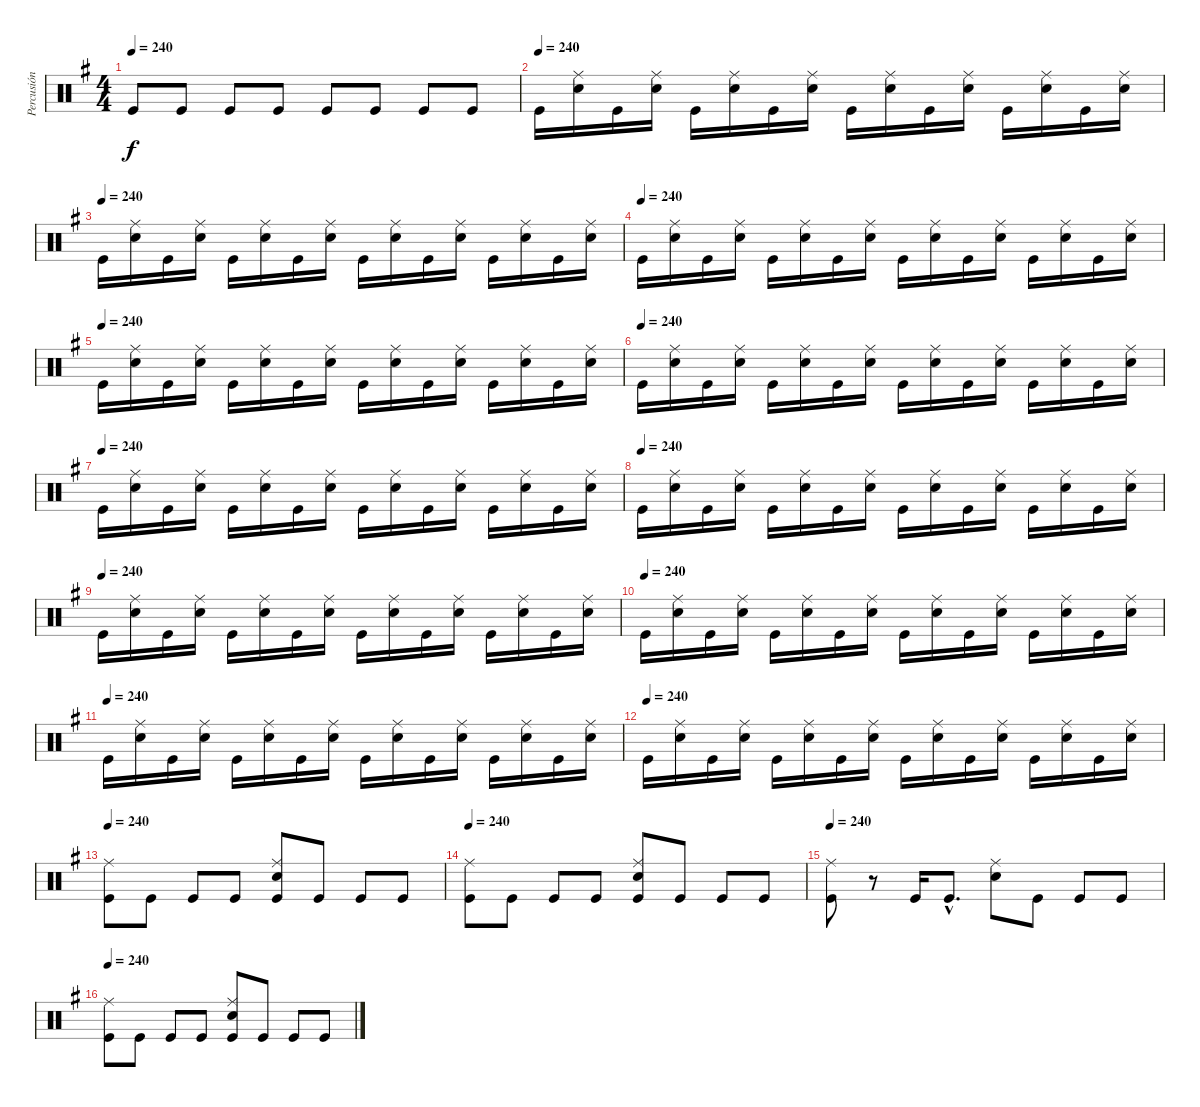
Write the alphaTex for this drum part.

\track ("Percusión" "Percusión") {instrument percussion}
\staff {score}
\articulation defaults
\ts (4 4)
\tempo 240
\clef neutral
\ks g "Kick (hit)".8{dy f} "Kick (hit)".8 "Kick (hit)".8 "Kick (hit)".8 "Kick (hit)".8 "Kick (hit)".8 "Kick (hit)".8 "Kick (hit)".8
|
\tempo (240)
"Kick (hit)".16 ("Ride (middle)" "Snare (hit) 2").16 "Kick (hit)".16 ("Ride (middle)" "Snare (hit) 2").16 "Kick (hit)".16 ("Ride (middle)" "Snare (hit) 2").16 "Kick (hit)".16 ("Ride (middle)" "Snare (hit) 2").16 "Kick (hit)".16 ("Ride (middle)" "Snare (hit) 2").16 "Kick (hit)".16 ("Ride (middle)" "Snare (hit) 2").16 "Kick (hit)".16 ("Ride (middle)" "Snare (hit) 2").16 "Kick (hit)".16 ("Ride (middle)" "Snare (hit) 2").16 |
\tempo (240)
"Kick (hit)".16 ("Ride (middle)" "Snare (hit) 2").16 "Kick (hit)".16 ("Ride (middle)" "Snare (hit) 2").16 "Kick (hit)".16 ("Ride (middle)" "Snare (hit) 2").16 "Kick (hit)".16 ("Ride (middle)" "Snare (hit) 2").16 "Kick (hit)".16 ("Ride (middle)" "Snare (hit) 2").16 "Kick (hit)".16 ("Ride (middle)" "Snare (hit) 2").16 "Kick (hit)".16 ("Ride (middle)" "Snare (hit) 2").16 "Kick (hit)".16 ("Ride (middle)" "Snare (hit) 2").16 |
\tempo (240)
"Kick (hit)".16 ("Ride (middle)" "Snare (hit) 2").16 "Kick (hit)".16 ("Ride (middle)" "Snare (hit) 2").16 "Kick (hit)".16 ("Ride (middle)" "Snare (hit) 2").16 "Kick (hit)".16 ("Ride (middle)" "Snare (hit) 2").16 "Kick (hit)".16 ("Ride (middle)" "Snare (hit) 2").16 "Kick (hit)".16 ("Ride (middle)" "Snare (hit) 2").16 "Kick (hit)".16 ("Ride (middle)" "Snare (hit) 2").16 "Kick (hit)".16 ("Ride (middle)" "Snare (hit) 2").16 |
\tempo (240)
"Kick (hit)".16 ("Ride (middle)" "Snare (hit) 2").16 "Kick (hit)".16 ("Ride (middle)" "Snare (hit) 2").16 "Kick (hit)".16 ("Ride (middle)" "Snare (hit) 2").16 "Kick (hit)".16 ("Ride (middle)" "Snare (hit) 2").16 "Kick (hit)".16 ("Ride (middle)" "Snare (hit) 2").16 "Kick (hit)".16 ("Ride (middle)" "Snare (hit) 2").16 "Kick (hit)".16 ("Ride (middle)" "Snare (hit) 2").16 "Kick (hit)".16 ("Ride (middle)" "Snare (hit) 2").16 |
\tempo (240)
"Kick (hit)".16 ("Ride (middle)" "Snare (hit) 2").16 "Kick (hit)".16 ("Ride (middle)" "Snare (hit) 2").16 "Kick (hit)".16 ("Ride (middle)" "Snare (hit) 2").16 "Kick (hit)".16 ("Ride (middle)" "Snare (hit) 2").16 "Kick (hit)".16 ("Ride (middle)" "Snare (hit) 2").16 "Kick (hit)".16 ("Ride (middle)" "Snare (hit) 2").16 "Kick (hit)".16 ("Ride (middle)" "Snare (hit) 2").16 "Kick (hit)".16 ("Ride (middle)" "Snare (hit) 2").16 |
\tempo (240)
"Kick (hit)".16 ("Ride (middle)" "Snare (hit) 2").16 "Kick (hit)".16 ("Ride (middle)" "Snare (hit) 2").16 "Kick (hit)".16 ("Ride (middle)" "Snare (hit) 2").16 "Kick (hit)".16 ("Ride (middle)" "Snare (hit) 2").16 "Kick (hit)".16 ("Ride (middle)" "Snare (hit) 2").16 "Kick (hit)".16 ("Ride (middle)" "Snare (hit) 2").16 "Kick (hit)".16 ("Ride (middle)" "Snare (hit) 2").16 "Kick (hit)".16 ("Ride (middle)" "Snare (hit) 2").16 |
\tempo (240)
"Kick (hit)".16 ("Ride (middle)" "Snare (hit) 2").16 "Kick (hit)".16 ("Ride (middle)" "Snare (hit) 2").16 "Kick (hit)".16 ("Ride (middle)" "Snare (hit) 2").16 "Kick (hit)".16 ("Ride (middle)" "Snare (hit) 2").16 "Kick (hit)".16 ("Ride (middle)" "Snare (hit) 2").16 "Kick (hit)".16 ("Ride (middle)" "Snare (hit) 2").16 "Kick (hit)".16 ("Ride (middle)" "Snare (hit) 2").16 "Kick (hit)".16 ("Ride (middle)" "Snare (hit) 2").16 |
\tempo (240)
"Kick (hit)".16 ("Ride (middle)" "Snare (hit) 2").16 "Kick (hit)".16 ("Ride (middle)" "Snare (hit) 2").16 "Kick (hit)".16 ("Ride (middle)" "Snare (hit) 2").16 "Kick (hit)".16 ("Ride (middle)" "Snare (hit) 2").16 "Kick (hit)".16 ("Ride (middle)" "Snare (hit) 2").16 "Kick (hit)".16 ("Ride (middle)" "Snare (hit) 2").16 "Kick (hit)".16 ("Ride (middle)" "Snare (hit) 2").16 "Kick (hit)".16 ("Ride (middle)" "Snare (hit) 2").16 |
\tempo (240)
"Kick (hit)".16 ("Ride (middle)" "Snare (hit) 2").16 "Kick (hit)".16 ("Ride (middle)" "Snare (hit) 2").16 "Kick (hit)".16 ("Ride (middle)" "Snare (hit) 2").16 "Kick (hit)".16 ("Ride (middle)" "Snare (hit) 2").16 "Kick (hit)".16 ("Ride (middle)" "Snare (hit) 2").16 "Kick (hit)".16 ("Ride (middle)" "Snare (hit) 2").16 "Kick (hit)".16 ("Ride (middle)" "Snare (hit) 2").16 "Kick (hit)".16 ("Ride (middle)" "Snare (hit) 2").16 |
\tempo (240)
"Kick (hit)".16 ("Ride (middle)" "Snare (hit) 2").16 "Kick (hit)".16 ("Ride (middle)" "Snare (hit) 2").16 "Kick (hit)".16 ("Ride (middle)" "Snare (hit) 2").16 "Kick (hit)".16 ("Ride (middle)" "Snare (hit) 2").16 "Kick (hit)".16 ("Ride (middle)" "Snare (hit) 2").16 "Kick (hit)".16 ("Ride (middle)" "Snare (hit) 2").16 "Kick (hit)".16 ("Ride (middle)" "Snare (hit) 2").16 "Kick (hit)".16 ("Ride (middle)" "Snare (hit) 2").16 |
\tempo (240)
"Kick (hit)".16 ("Ride (middle)" "Snare (hit) 2").16 "Kick (hit)".16 ("Ride (middle)" "Snare (hit) 2").16 "Kick (hit)".16 ("Ride (middle)" "Snare (hit) 2").16 "Kick (hit)".16 ("Ride (middle)" "Snare (hit) 2").16 "Kick (hit)".16 ("Ride (middle)" "Snare (hit) 2").16 "Kick (hit)".16 ("Ride (middle)" "Snare (hit) 2").16 "Kick (hit)".16 ("Ride (middle)" "Snare (hit) 2").16 "Kick (hit)".16 ("Ride (middle)" "Snare (hit) 2").16 |
\tempo 240
("Ride (middle)" "Kick (hit)").8 "Kick (hit)".8 "Kick (hit)".8 "Kick (hit)".8 ("Ride (middle)" "Kick (hit)" "Snare (hit) 2").8 "Kick (hit)".8 "Kick (hit)".8 "Kick (hit)".8 |
\tempo 240
("Ride (middle)" "Kick (hit)").8 "Kick (hit)".8 "Kick (hit)".8 "Kick (hit)".8 ("Ride (middle)" "Kick (hit)" "Snare (hit) 2").8 "Kick (hit)".8 "Kick (hit)".8 "Kick (hit)".8 |
\tempo 240
("Ride (middle)" "Kick (hit)").8 r.8 "Kick (hit)".16 "Kick (hit)"{hac}.8{d} ("Ride (middle)" "Snare (hit) 2").8 "Kick (hit)".8 "Kick (hit)".8 "Kick (hit)".8 |
\tempo 240
("Ride (middle)" "Kick (hit)").8 "Kick (hit)".8 "Kick (hit)".8 "Kick (hit)".8 ("Ride (middle)" "Kick (hit)" "Snare (hit) 2").8 "Kick (hit)".8 "Kick (hit)".8 "Kick (hit)".8
